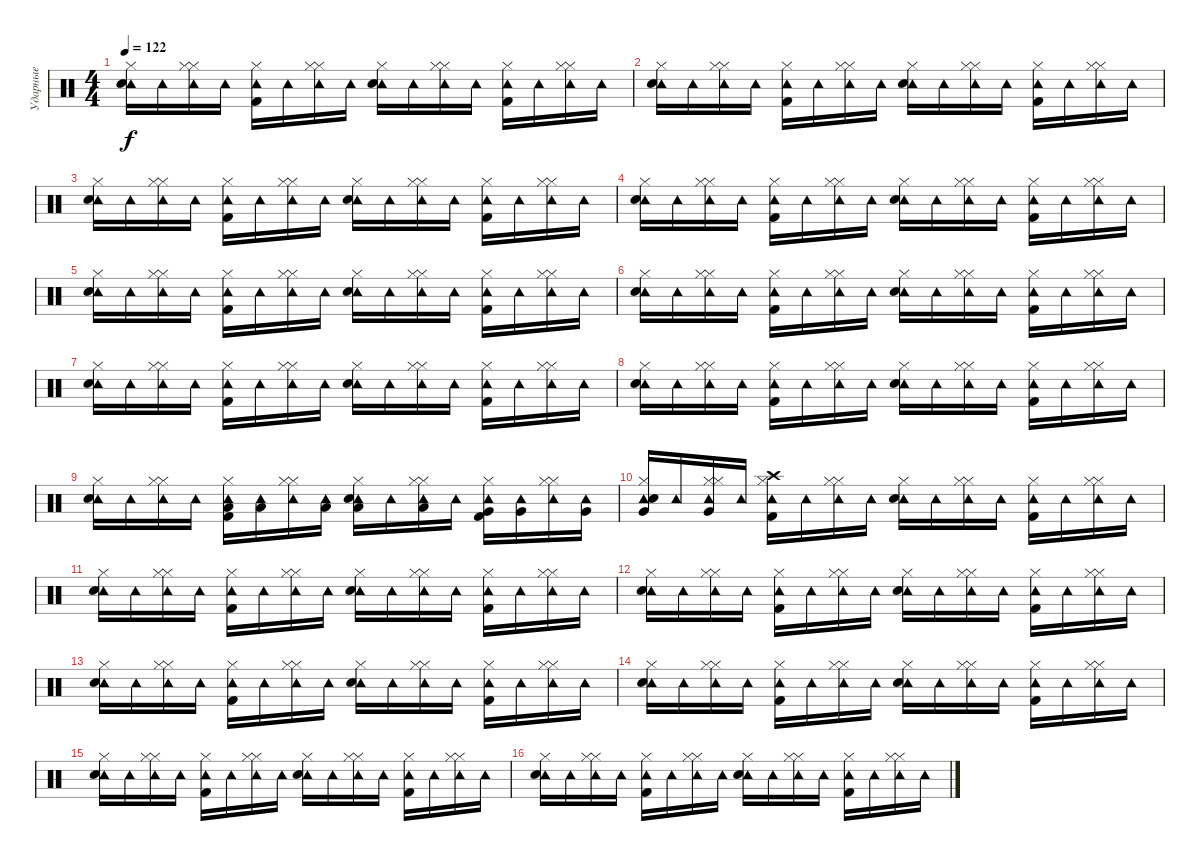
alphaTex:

\track ("Ударные" "Ударные") {instrument percussion}
\staff {score}
\articulation defaults
\ts (4 4)
\tempo 122
\clef neutral
\ks c
("Tambourine (hit)" "Hi-Hat (closed)" "Snare (hit) 2").16{dy f} "Tambourine (hit)".16 ("Tambourine (hit)" "Hi-Hat (closed)" "Hi-Hat (closed)").16 "Tambourine (hit)".16 ("Tambourine (hit)" "Hi-Hat (closed)" "Kick (hit) 2").16 "Tambourine (hit)".16 ("Tambourine (hit)" "Hi-Hat (closed)" "Hi-Hat (closed)").16 "Tambourine (hit)".16 ("Tambourine (hit)" "Hi-Hat (closed)" "Snare (hit) 2").16 "Tambourine (hit)".16 ("Tambourine (hit)" "Hi-Hat (closed)" "Hi-Hat (closed)").16 "Tambourine (hit)".16 ("Tambourine (hit)" "Hi-Hat (closed)" "Kick (hit) 2").16 "Tambourine (hit)".16 ("Tambourine (hit)" "Hi-Hat (closed)" "Hi-Hat (closed)").16 "Tambourine (hit)".16 |
("Tambourine (hit)" "Hi-Hat (closed)" "Snare (hit) 2").16 "Tambourine (hit)".16 ("Tambourine (hit)" "Hi-Hat (closed)" "Hi-Hat (closed)").16 "Tambourine (hit)".16 ("Tambourine (hit)" "Hi-Hat (closed)" "Kick (hit) 2").16 "Tambourine (hit)".16 ("Tambourine (hit)" "Hi-Hat (closed)" "Hi-Hat (closed)").16 "Tambourine (hit)".16 ("Tambourine (hit)" "Hi-Hat (closed)" "Snare (hit) 2").16 "Tambourine (hit)".16 ("Tambourine (hit)" "Hi-Hat (closed)" "Hi-Hat (closed)").16 "Tambourine (hit)".16 ("Tambourine (hit)" "Hi-Hat (closed)" "Kick (hit) 2").16 "Tambourine (hit)".16 ("Tambourine (hit)" "Hi-Hat (closed)" "Hi-Hat (closed)").16 "Tambourine (hit)".16 |
("Tambourine (hit)" "Hi-Hat (closed)" "Snare (hit) 2").16 "Tambourine (hit)".16 ("Tambourine (hit)" "Hi-Hat (closed)" "Hi-Hat (closed)").16 "Tambourine (hit)".16 ("Tambourine (hit)" "Hi-Hat (closed)" "Kick (hit) 2").16 "Tambourine (hit)".16 ("Tambourine (hit)" "Hi-Hat (closed)" "Hi-Hat (closed)").16 "Tambourine (hit)".16 ("Tambourine (hit)" "Hi-Hat (closed)" "Snare (hit) 2").16 "Tambourine (hit)".16 ("Tambourine (hit)" "Hi-Hat (closed)" "Hi-Hat (closed)").16 "Tambourine (hit)".16 ("Tambourine (hit)" "Hi-Hat (closed)" "Kick (hit) 2").16 "Tambourine (hit)".16 ("Tambourine (hit)" "Hi-Hat (closed)" "Hi-Hat (closed)").16 "Tambourine (hit)".16 |
("Tambourine (hit)" "Hi-Hat (closed)" "Snare (hit) 2").16 "Tambourine (hit)".16 ("Tambourine (hit)" "Hi-Hat (closed)" "Hi-Hat (closed)").16 "Tambourine (hit)".16 ("Tambourine (hit)" "Hi-Hat (closed)" "Kick (hit) 2").16 "Tambourine (hit)".16 ("Tambourine (hit)" "Hi-Hat (closed)" "Hi-Hat (closed)").16 "Tambourine (hit)".16 ("Tambourine (hit)" "Hi-Hat (closed)" "Snare (hit) 2").16 "Tambourine (hit)".16 ("Tambourine (hit)" "Hi-Hat (closed)" "Hi-Hat (closed)").16 "Tambourine (hit)".16 ("Tambourine (hit)" "Hi-Hat (closed)" "Kick (hit) 2").16 "Tambourine (hit)".16 ("Tambourine (hit)" "Hi-Hat (closed)" "Hi-Hat (closed)").16 "Tambourine (hit)".16 |
("Tambourine (hit)" "Hi-Hat (closed)" "Snare (hit) 2").16 "Tambourine (hit)".16 ("Tambourine (hit)" "Hi-Hat (closed)" "Hi-Hat (closed)").16 "Tambourine (hit)".16 ("Tambourine (hit)" "Hi-Hat (closed)" "Kick (hit) 2").16 "Tambourine (hit)".16 ("Tambourine (hit)" "Hi-Hat (closed)" "Hi-Hat (closed)").16 "Tambourine (hit)".16 ("Tambourine (hit)" "Hi-Hat (closed)" "Snare (hit) 2").16 "Tambourine (hit)".16 ("Tambourine (hit)" "Hi-Hat (closed)" "Hi-Hat (closed)").16 "Tambourine (hit)".16 ("Tambourine (hit)" "Hi-Hat (closed)" "Kick (hit) 2").16 "Tambourine (hit)".16 ("Tambourine (hit)" "Hi-Hat (closed)" "Hi-Hat (closed)").16 "Tambourine (hit)".16 |
("Tambourine (hit)" "Hi-Hat (closed)" "Snare (hit) 2").16 "Tambourine (hit)".16 ("Tambourine (hit)" "Hi-Hat (closed)" "Hi-Hat (closed)").16 "Tambourine (hit)".16 ("Tambourine (hit)" "Hi-Hat (closed)" "Kick (hit) 2").16 "Tambourine (hit)".16 ("Tambourine (hit)" "Hi-Hat (closed)" "Hi-Hat (closed)").16 "Tambourine (hit)".16 ("Tambourine (hit)" "Hi-Hat (closed)" "Snare (hit) 2").16 "Tambourine (hit)".16 ("Tambourine (hit)" "Hi-Hat (closed)" "Hi-Hat (closed)").16 "Tambourine (hit)".16 ("Tambourine (hit)" "Hi-Hat (closed)" "Kick (hit) 2").16 "Tambourine (hit)".16 ("Tambourine (hit)" "Hi-Hat (closed)" "Hi-Hat (closed)").16 "Tambourine (hit)".16 |
("Tambourine (hit)" "Hi-Hat (closed)" "Snare (hit) 2").16 "Tambourine (hit)".16 ("Tambourine (hit)" "Hi-Hat (closed)" "Hi-Hat (closed)").16 "Tambourine (hit)".16 ("Tambourine (hit)" "Hi-Hat (closed)" "Kick (hit) 2").16 "Tambourine (hit)".16 ("Tambourine (hit)" "Hi-Hat (closed)" "Hi-Hat (closed)").16 "Tambourine (hit)".16 ("Tambourine (hit)" "Hi-Hat (closed)" "Snare (hit) 2").16 "Tambourine (hit)".16 ("Tambourine (hit)" "Hi-Hat (closed)" "Hi-Hat (closed)").16 "Tambourine (hit)".16 ("Tambourine (hit)" "Hi-Hat (closed)" "Kick (hit) 2").16 "Tambourine (hit)".16 ("Tambourine (hit)" "Hi-Hat (closed)" "Hi-Hat (closed)").16 "Tambourine (hit)".16 |
("Tambourine (hit)" "Hi-Hat (closed)" "Snare (hit) 2").16 "Tambourine (hit)".16 ("Tambourine (hit)" "Hi-Hat (closed)" "Hi-Hat (closed)").16 "Tambourine (hit)".16 ("Tambourine (hit)" "Hi-Hat (closed)" "Kick (hit) 2").16 "Tambourine (hit)".16 ("Tambourine (hit)" "Hi-Hat (closed)" "Hi-Hat (closed)").16 "Tambourine (hit)".16 ("Tambourine (hit)" "Hi-Hat (closed)" "Snare (hit) 2").16 "Tambourine (hit)".16 ("Tambourine (hit)" "Hi-Hat (closed)" "Hi-Hat (closed)").16 "Tambourine (hit)".16 ("Tambourine (hit)" "Hi-Hat (closed)" "Kick (hit) 2").16 "Tambourine (hit)".16 ("Tambourine (hit)" "Hi-Hat (closed)" "Hi-Hat (closed)").16 "Tambourine (hit)".16 |
("Tambourine (hit)" "Hi-Hat (closed)" "Snare (hit) 2").16 "Tambourine (hit)".16 ("Tambourine (hit)" "Hi-Hat (closed)" "Hi-Hat (closed)").16 "Tambourine (hit)".16 ("Tambourine (hit)" "Low Tom (hit)" "Hi-Hat (closed)" "Kick (hit) 2").16 ("Tambourine (hit)" "Low Tom (hit)").16 ("Tambourine (hit)" "Hi-Hat (closed)" "Hi-Hat (closed)").16 ("Tambourine (hit)" "Low Tom (hit)").16 ("Tambourine (hit)" "Low Tom (hit)" "Hi-Hat (closed)" "Snare (hit) 2").16 "Tambourine (hit)".16 ("Tambourine (hit)" "Low Tom (hit)" "Hi-Hat (closed)" "Hi-Hat (closed)").16 "Tambourine (hit)".16 ("Tambourine (hit)" "Very Low Tom (hit)" "Hi-Hat (closed)" "Kick (hit) 2").16 ("Tambourine (hit)" "Very Low Tom (hit)").16 ("Tambourine (hit)" "Hi-Hat (closed)" "Hi-Hat (closed)").16 ("Tambourine (hit)" "Very Low Tom (hit)").16 |
("Tambourine (hit)" "Very Low Tom (hit)" "Hi-Hat (closed)" "Snare (hit) 2").16 "Tambourine (hit)".16 ("Tambourine (hit)" "Very Low Tom (hit)" "Hi-Hat (closed)" "Hi-Hat (closed)").16 "Tambourine (hit)".16 ("Crash high (hit)" "Tambourine (hit)" "Hi-Hat (closed)" "Kick (hit) 2").16 "Tambourine (hit)".16 ("Tambourine (hit)" "Hi-Hat (closed)" "Hi-Hat (closed)").16 "Tambourine (hit)".16 ("Tambourine (hit)" "Hi-Hat (closed)" "Snare (hit) 2").16 "Tambourine (hit)".16 ("Tambourine (hit)" "Hi-Hat (closed)" "Hi-Hat (closed)").16 "Tambourine (hit)".16 ("Tambourine (hit)" "Hi-Hat (closed)" "Kick (hit) 2").16 "Tambourine (hit)".16 ("Tambourine (hit)" "Hi-Hat (closed)" "Hi-Hat (closed)").16 "Tambourine (hit)".16 |
("Tambourine (hit)" "Hi-Hat (closed)" "Snare (hit) 2").16 "Tambourine (hit)".16 ("Tambourine (hit)" "Hi-Hat (closed)" "Hi-Hat (closed)").16 "Tambourine (hit)".16 ("Tambourine (hit)" "Hi-Hat (closed)" "Kick (hit) 2").16 "Tambourine (hit)".16 ("Tambourine (hit)" "Hi-Hat (closed)" "Hi-Hat (closed)").16 "Tambourine (hit)".16 ("Tambourine (hit)" "Hi-Hat (closed)" "Snare (hit) 2").16 "Tambourine (hit)".16 ("Tambourine (hit)" "Hi-Hat (closed)" "Hi-Hat (closed)").16 "Tambourine (hit)".16 ("Tambourine (hit)" "Hi-Hat (closed)" "Kick (hit) 2").16 "Tambourine (hit)".16 ("Tambourine (hit)" "Hi-Hat (closed)" "Hi-Hat (closed)").16 "Tambourine (hit)".16 |
("Tambourine (hit)" "Hi-Hat (closed)" "Snare (hit) 2").16 "Tambourine (hit)".16 ("Tambourine (hit)" "Hi-Hat (closed)" "Hi-Hat (closed)").16 "Tambourine (hit)".16 ("Tambourine (hit)" "Hi-Hat (closed)" "Kick (hit) 2").16 "Tambourine (hit)".16 ("Tambourine (hit)" "Hi-Hat (closed)" "Hi-Hat (closed)").16 "Tambourine (hit)".16 ("Tambourine (hit)" "Hi-Hat (closed)" "Snare (hit) 2").16 "Tambourine (hit)".16 ("Tambourine (hit)" "Hi-Hat (closed)" "Hi-Hat (closed)").16 "Tambourine (hit)".16 ("Tambourine (hit)" "Hi-Hat (closed)" "Kick (hit) 2").16 "Tambourine (hit)".16 ("Tambourine (hit)" "Hi-Hat (closed)" "Hi-Hat (closed)").16 "Tambourine (hit)".16 |
("Tambourine (hit)" "Hi-Hat (closed)" "Snare (hit) 2").16 "Tambourine (hit)".16 ("Tambourine (hit)" "Hi-Hat (closed)" "Hi-Hat (closed)").16 "Tambourine (hit)".16 ("Tambourine (hit)" "Hi-Hat (closed)" "Kick (hit) 2").16 "Tambourine (hit)".16 ("Tambourine (hit)" "Hi-Hat (closed)" "Hi-Hat (closed)").16 "Tambourine (hit)".16 ("Tambourine (hit)" "Hi-Hat (closed)" "Snare (hit) 2").16 "Tambourine (hit)".16 ("Tambourine (hit)" "Hi-Hat (closed)" "Hi-Hat (closed)").16 "Tambourine (hit)".16 ("Tambourine (hit)" "Hi-Hat (closed)" "Kick (hit) 2").16 "Tambourine (hit)".16 ("Tambourine (hit)" "Hi-Hat (closed)" "Hi-Hat (closed)").16 "Tambourine (hit)".16 |
("Tambourine (hit)" "Hi-Hat (closed)" "Snare (hit) 2").16 "Tambourine (hit)".16 ("Tambourine (hit)" "Hi-Hat (closed)" "Hi-Hat (closed)").16 "Tambourine (hit)".16 ("Tambourine (hit)" "Hi-Hat (closed)" "Kick (hit) 2").16 "Tambourine (hit)".16 ("Tambourine (hit)" "Hi-Hat (closed)" "Hi-Hat (closed)").16 "Tambourine (hit)".16 ("Tambourine (hit)" "Hi-Hat (closed)" "Snare (hit) 2").16 "Tambourine (hit)".16 ("Tambourine (hit)" "Hi-Hat (closed)" "Hi-Hat (closed)").16 "Tambourine (hit)".16 ("Tambourine (hit)" "Hi-Hat (closed)" "Kick (hit) 2").16 "Tambourine (hit)".16 ("Tambourine (hit)" "Hi-Hat (closed)" "Hi-Hat (closed)").16 "Tambourine (hit)".16 |
("Tambourine (hit)" "Hi-Hat (closed)" "Snare (hit) 2").16 "Tambourine (hit)".16 ("Tambourine (hit)" "Hi-Hat (closed)" "Hi-Hat (closed)").16 "Tambourine (hit)".16 ("Tambourine (hit)" "Hi-Hat (closed)" "Kick (hit) 2").16 "Tambourine (hit)".16 ("Tambourine (hit)" "Hi-Hat (closed)" "Hi-Hat (closed)").16 "Tambourine (hit)".16 ("Tambourine (hit)" "Hi-Hat (closed)" "Snare (hit) 2").16 "Tambourine (hit)".16 ("Tambourine (hit)" "Hi-Hat (closed)" "Hi-Hat (closed)").16 "Tambourine (hit)".16 ("Tambourine (hit)" "Hi-Hat (closed)" "Kick (hit) 2").16 "Tambourine (hit)".16 ("Tambourine (hit)" "Hi-Hat (closed)" "Hi-Hat (closed)").16 "Tambourine (hit)".16 |
("Tambourine (hit)" "Hi-Hat (closed)" "Snare (hit) 2").16 "Tambourine (hit)".16 ("Tambourine (hit)" "Hi-Hat (closed)" "Hi-Hat (closed)").16 "Tambourine (hit)".16 ("Tambourine (hit)" "Hi-Hat (closed)" "Kick (hit) 2").16 "Tambourine (hit)".16 ("Tambourine (hit)" "Hi-Hat (closed)" "Hi-Hat (closed)").16 "Tambourine (hit)".16 ("Tambourine (hit)" "Hi-Hat (closed)" "Snare (hit) 2").16 "Tambourine (hit)".16 ("Tambourine (hit)" "Hi-Hat (closed)" "Hi-Hat (closed)").16 "Tambourine (hit)".16 ("Tambourine (hit)" "Hi-Hat (closed)" "Kick (hit) 2").16 "Tambourine (hit)".16 ("Tambourine (hit)" "Hi-Hat (closed)" "Hi-Hat (closed)").16 "Tambourine (hit)".16
